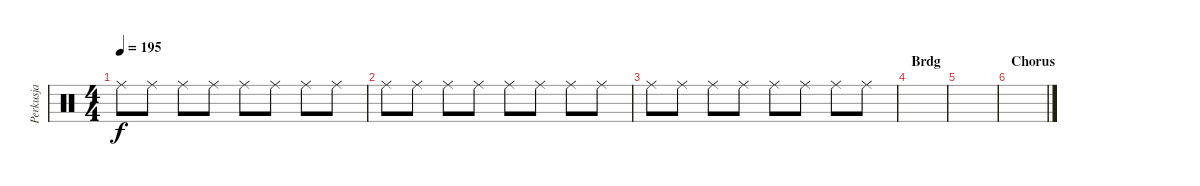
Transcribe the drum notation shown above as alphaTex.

\track ("Perkusja" "Perkusja") {instrument percussion}
\staff {score}
\articulation defaults
\ts (4 4)
\tempo 195
\clef neutral
\ks c "Ride (middle)".8{dy f} "Ride (middle)".8 "Ride (middle)".8 "Ride (middle)".8 "Ride (middle)".8 "Ride (middle)".8 "Ride (middle)".8 "Ride (middle)".8
|
"Ride (middle)".8 "Ride (middle)".8 "Ride (middle)".8 "Ride (middle)".8 "Ride (middle)".8 "Ride (middle)".8 "Ride (middle)".8 "Ride (middle)".8 |
"Ride (middle)".8 "Ride (middle)".8 "Ride (middle)".8 "Ride (middle)".8 "Ride (middle)".8 "Ride (middle)".8 "Ride (middle)".8 "Ride (middle)".8 |
\section ("" "Brdg")
|
|
\section ("" "Chorus")
